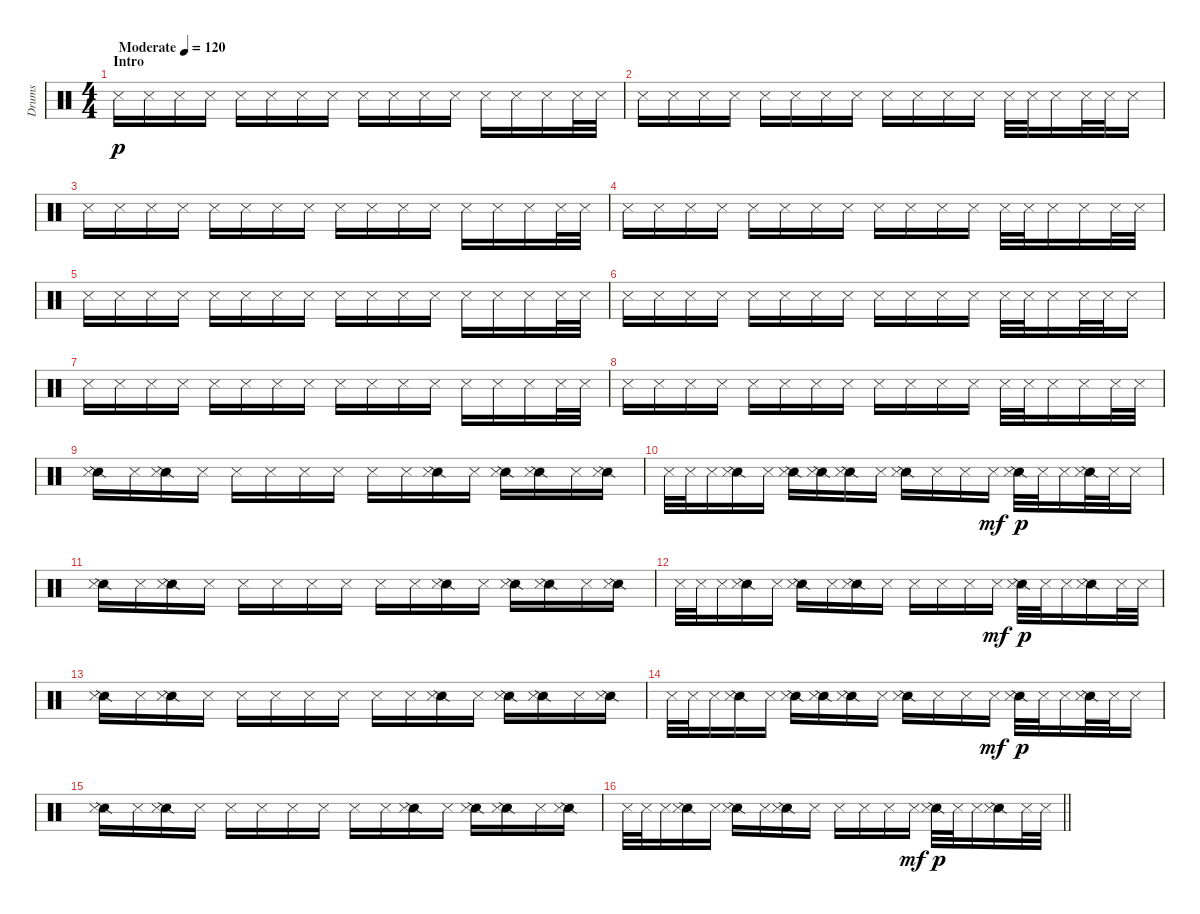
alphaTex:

\track ("Drums" "Drums") {instrument percussion}
\staff {score}
\articulation defaults
\ts (4 4)
\section ("" "Intro")
\tempo (120 "Moderate")
\tempo 93
\tempo (120 "Moderate")
\clef neutral
\ks c "Snare (side stick) 3".16{dy p volume 8} "Snare (side stick) 3".16 "Snare (side stick) 3".16 "Snare (side stick) 3".16 "Snare (side stick) 3".16 "Snare (side stick) 3".16 "Snare (side stick) 3".16 "Snare (side stick) 3".16 "Snare (side stick) 3".16 "Snare (side stick) 3".16 "Snare (side stick) 3".16 "Snare (side stick) 3".16 "Snare (side stick) 3".16 "Snare (side stick) 3".16 "Snare (side stick) 3".16 "Snare (side stick) 3".32 "Snare (side stick) 3".32
|
"Snare (side stick) 3".16 "Snare (side stick) 3".16 "Snare (side stick) 3".16 "Snare (side stick) 3".16 "Snare (side stick) 3".16 "Snare (side stick) 3".16 "Snare (side stick) 3".16 "Snare (side stick) 3".16 "Snare (side stick) 3".16 "Snare (side stick) 3".16 "Snare (side stick) 3".16 "Snare (side stick) 3".16 "Snare (side stick) 3".32 "Snare (side stick) 3".32 "Snare (side stick) 3".16 "Snare (side stick) 3".32 "Snare (side stick) 3".32 "Snare (side stick) 3".16 |
"Snare (side stick) 3".16 "Snare (side stick) 3".16 "Snare (side stick) 3".16 "Snare (side stick) 3".16 "Snare (side stick) 3".16 "Snare (side stick) 3".16 "Snare (side stick) 3".16 "Snare (side stick) 3".16 "Snare (side stick) 3".16 "Snare (side stick) 3".16 "Snare (side stick) 3".16 "Snare (side stick) 3".16 "Snare (side stick) 3".16 "Snare (side stick) 3".16 "Snare (side stick) 3".16 "Snare (side stick) 3".32 "Snare (side stick) 3".32 |
"Snare (side stick) 3".16 "Snare (side stick) 3".16 "Snare (side stick) 3".16 "Snare (side stick) 3".16 "Snare (side stick) 3".16 "Snare (side stick) 3".16 "Snare (side stick) 3".16 "Snare (side stick) 3".16 "Snare (side stick) 3".16 "Snare (side stick) 3".16 "Snare (side stick) 3".16 "Snare (side stick) 3".16 "Snare (side stick) 3".32 "Snare (side stick) 3".32 "Snare (side stick) 3".16 "Snare (side stick) 3".16 "Snare (side stick) 3".32 "Snare (side stick) 3".32 |
"Snare (side stick) 3".16{volume 11} "Snare (side stick) 3".16 "Snare (side stick) 3".16 "Snare (side stick) 3".16 "Snare (side stick) 3".16 "Snare (side stick) 3".16 "Snare (side stick) 3".16 "Snare (side stick) 3".16 "Snare (side stick) 3".16 "Snare (side stick) 3".16 "Snare (side stick) 3".16 "Snare (side stick) 3".16 "Snare (side stick) 3".16 "Snare (side stick) 3".16 "Snare (side stick) 3".16 "Snare (side stick) 3".32 "Snare (side stick) 3".32 |
"Snare (side stick) 3".16 "Snare (side stick) 3".16 "Snare (side stick) 3".16 "Snare (side stick) 3".16 "Snare (side stick) 3".16 "Snare (side stick) 3".16 "Snare (side stick) 3".16 "Snare (side stick) 3".16 "Snare (side stick) 3".16 "Snare (side stick) 3".16 "Snare (side stick) 3".16 "Snare (side stick) 3".16 "Snare (side stick) 3".32 "Snare (side stick) 3".32 "Snare (side stick) 3".16 "Snare (side stick) 3".32 "Snare (side stick) 3".32 "Snare (side stick) 3".16 |
"Snare (side stick) 3".16 "Snare (side stick) 3".16 "Snare (side stick) 3".16 "Snare (side stick) 3".16 "Snare (side stick) 3".16 "Snare (side stick) 3".16 "Snare (side stick) 3".16 "Snare (side stick) 3".16 "Snare (side stick) 3".16 "Snare (side stick) 3".16 "Snare (side stick) 3".16 "Snare (side stick) 3".16 "Snare (side stick) 3".16 "Snare (side stick) 3".16 "Snare (side stick) 3".16 "Snare (side stick) 3".32 "Snare (side stick) 3".32 |
"Snare (side stick) 3".16 "Snare (side stick) 3".16 "Snare (side stick) 3".16 "Snare (side stick) 3".16 "Snare (side stick) 3".16 "Snare (side stick) 3".16 "Snare (side stick) 3".16 "Snare (side stick) 3".16 "Snare (side stick) 3".16 "Snare (side stick) 3".16 "Snare (side stick) 3".16 "Snare (side stick) 3".16 "Snare (side stick) 3".32 "Snare (side stick) 3".32 "Snare (side stick) 3".16 "Snare (side stick) 3".16 "Snare (side stick) 3".32 "Snare (side stick) 3".32 |
("Snare (side stick) 2" "Snare (side stick) 3").16{volume 13} "Snare (side stick) 3".16 ("Snare (side stick) 2" "Snare (side stick) 3").16 "Snare (side stick) 3".16 "Snare (side stick) 3".16 "Snare (side stick) 3".16 "Snare (side stick) 3".16 "Snare (side stick) 3".16 "Snare (side stick) 3".16 "Snare (side stick) 3".16 ("Snare (side stick) 2" "Snare (side stick) 3").16 "Snare (side stick) 3".16 ("Snare (side stick) 2" "Snare (side stick) 3").16 ("Snare (side stick) 2" "Snare (side stick) 3").16 "Snare (side stick) 3".16 ("Snare (side stick) 2" "Snare (side stick) 3").16 |
"Snare (side stick) 3".32 "Snare (side stick) 3".32 "Snare (side stick) 3".16 ("Snare (side stick) 2" "Snare (side stick) 3").16 "Snare (side stick) 3".16 ("Snare (side stick) 2" "Snare (side stick) 3").16 ("Snare (side stick) 2" "Snare (side stick) 3").16 ("Snare (side stick) 2" "Snare (side stick) 3").16 "Snare (side stick) 3".16 ("Snare (side stick) 2" "Snare (side stick) 3").16 "Snare (side stick) 3".16 "Snare (side stick) 3".16 "Snare (side stick) 3".16{dy mf} ("Snare (side stick) 2" "Snare (side stick) 3").32{dy p} "Snare (side stick) 3".32 "Snare (side stick) 3".16 ("Snare (side stick) 2" "Snare (side stick) 3").32 "Snare (side stick) 3".32 "Snare (side stick) 3".16 |
("Snare (side stick) 2" "Snare (side stick) 3").16 "Snare (side stick) 3".16 ("Snare (side stick) 2" "Snare (side stick) 3").16 "Snare (side stick) 3".16 "Snare (side stick) 3".16 "Snare (side stick) 3".16 "Snare (side stick) 3".16 "Snare (side stick) 3".16 "Snare (side stick) 3".16 "Snare (side stick) 3".16 ("Snare (side stick) 2" "Snare (side stick) 3").16 "Snare (side stick) 3".16 ("Snare (side stick) 2" "Snare (side stick) 3").16 ("Snare (side stick) 2" "Snare (side stick) 3").16 "Snare (side stick) 3".16 ("Snare (side stick) 2" "Snare (side stick) 3").16 |
"Snare (side stick) 3".32 "Snare (side stick) 3".32 "Snare (side stick) 3".16 ("Snare (side stick) 2" "Snare (side stick) 3").16 "Snare (side stick) 3".16 ("Snare (side stick) 2" "Snare (side stick) 3").16 "Snare (side stick) 3".16 ("Snare (side stick) 2" "Snare (side stick) 3").16 "Snare (side stick) 3".16 "Snare (side stick) 3".16 "Snare (side stick) 3".16 "Snare (side stick) 3".16 "Snare (side stick) 3".16{dy mf} ("Snare (side stick) 2" "Snare (side stick) 3").32{dy p} "Snare (side stick) 3".32 "Snare (side stick) 3".16 ("Snare (side stick) 2" "Snare (side stick) 3").16 "Snare (side stick) 3".32 "Snare (side stick) 3".32 |
("Snare (side stick) 2" "Snare (side stick) 3").16 "Snare (side stick) 3".16 ("Snare (side stick) 2" "Snare (side stick) 3").16 "Snare (side stick) 3".16 "Snare (side stick) 3".16 "Snare (side stick) 3".16 "Snare (side stick) 3".16 "Snare (side stick) 3".16 "Snare (side stick) 3".16 "Snare (side stick) 3".16 ("Snare (side stick) 2" "Snare (side stick) 3").16 "Snare (side stick) 3".16 ("Snare (side stick) 2" "Snare (side stick) 3").16 ("Snare (side stick) 2" "Snare (side stick) 3").16 "Snare (side stick) 3".16 ("Snare (side stick) 2" "Snare (side stick) 3").16 |
"Snare (side stick) 3".32 "Snare (side stick) 3".32 "Snare (side stick) 3".16 ("Snare (side stick) 2" "Snare (side stick) 3").16 "Snare (side stick) 3".16 ("Snare (side stick) 2" "Snare (side stick) 3").16 ("Snare (side stick) 2" "Snare (side stick) 3").16 ("Snare (side stick) 2" "Snare (side stick) 3").16 "Snare (side stick) 3".16 ("Snare (side stick) 2" "Snare (side stick) 3").16 "Snare (side stick) 3".16 "Snare (side stick) 3".16 "Snare (side stick) 3".16{dy mf} ("Snare (side stick) 2" "Snare (side stick) 3").32{dy p} "Snare (side stick) 3".32 "Snare (side stick) 3".16 ("Snare (side stick) 2" "Snare (side stick) 3").32 "Snare (side stick) 3".32 "Snare (side stick) 3".16 |
("Snare (side stick) 2" "Snare (side stick) 3").16 "Snare (side stick) 3".16 ("Snare (side stick) 2" "Snare (side stick) 3").16 "Snare (side stick) 3".16 "Snare (side stick) 3".16 "Snare (side stick) 3".16 "Snare (side stick) 3".16 "Snare (side stick) 3".16 "Snare (side stick) 3".16 "Snare (side stick) 3".16 ("Snare (side stick) 2" "Snare (side stick) 3").16 "Snare (side stick) 3".16 ("Snare (side stick) 2" "Snare (side stick) 3").16 ("Snare (side stick) 2" "Snare (side stick) 3").16 "Snare (side stick) 3".16 ("Snare (side stick) 2" "Snare (side stick) 3").16 |
\barLineRight lightlight "Snare (side stick) 3".32 "Snare (side stick) 3".32 "Snare (side stick) 3".16
("Snare (side stick) 2" "Snare (side stick) 3").16 "Snare (side stick) 3".16 ("Snare (side stick) 2" "Snare (side stick) 3").16 "Snare (side stick) 3".16 ("Snare (side stick) 2" "Snare (side stick) 3").16 "Snare (side stick) 3".16 "Snare (side stick) 3".16 "Snare (side stick) 3".16 "Snare (side stick) 3".16 "Snare (side stick) 3".16{dy mf} ("Snare (side stick) 2" "Snare (side stick) 3").32{dy p} "Snare (side stick) 3".32 "Snare (side stick) 3".16 ("Snare (side stick) 2" "Snare (side stick) 3").16 "Snare (side stick) 3".32 "Snare (side stick) 3".32
